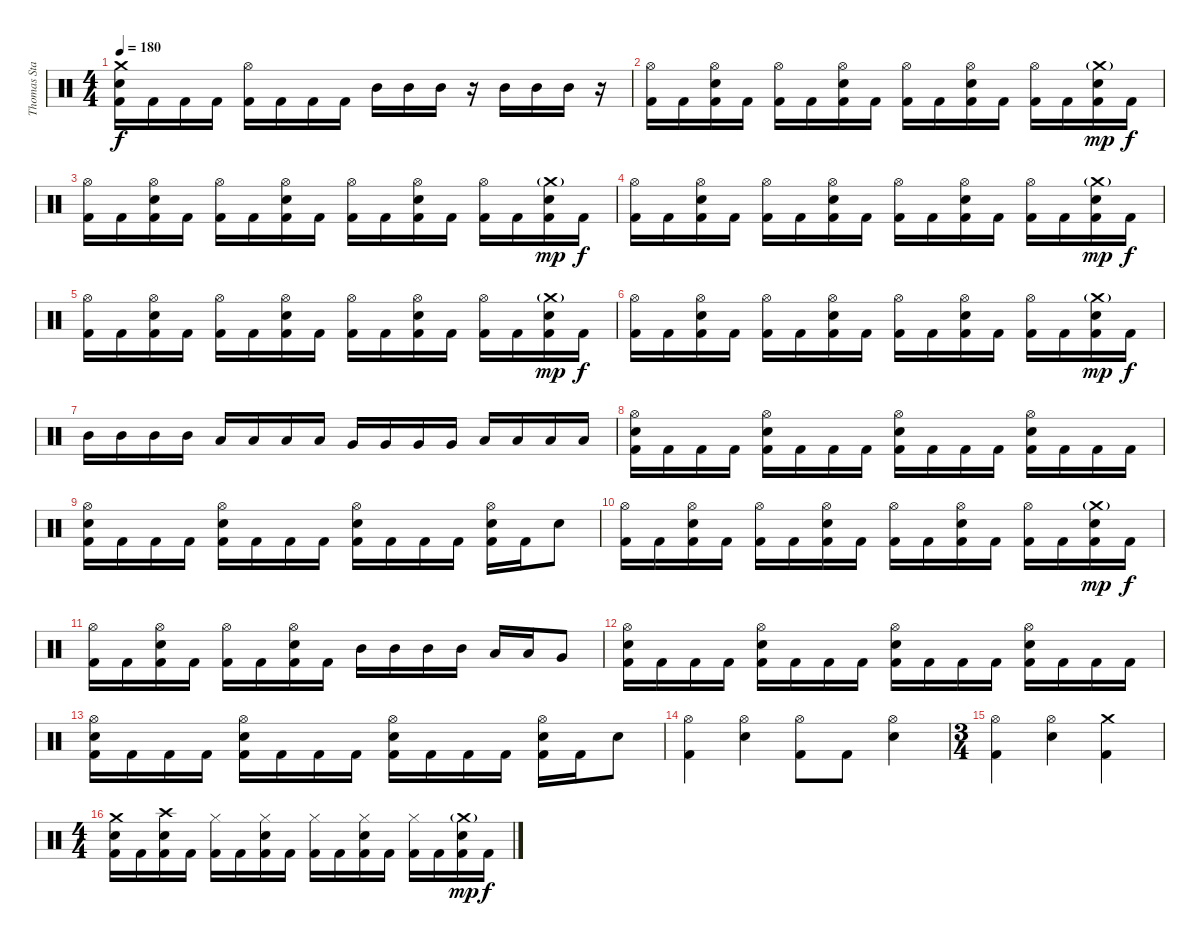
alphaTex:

\track ("Thomas Stauch" "Thomas Sta") {instrument percussion}
\staff {score}
\articulation defaults
\ts (4 4)
\tempo 180
\clef neutral
\ks c
("Crash medium (hit)" "Electric Snare (hit)" "Kick (hit) 2").16{dy f} "Kick (hit) 2".16 "Kick (hit) 2".16 "Kick (hit) 2".16 ("Hi-Hat (open)" "Kick (hit) 2").16 "Kick (hit) 2".16 "Kick (hit) 2".16 "Kick (hit) 2".16 "Mid Tom (hit)".16 "Mid Tom (hit)".16 "Mid Tom (hit)".16 r.16 "Mid Tom (hit)".16 "Mid Tom (hit)".16 "Mid Tom (hit)".16 r.16 |
("Hi-Hat (open)" "Kick (hit) 2").16 "Kick (hit) 2".16 ("Hi-Hat (open)" "Electric Snare (hit)" "Kick (hit) 2").16 "Kick (hit) 2".16 ("Hi-Hat (open)" "Kick (hit) 2").16 "Kick (hit) 2".16 ("Hi-Hat (open)" "Electric Snare (hit)" "Kick (hit) 2").16 "Kick (hit) 2".16 ("Hi-Hat (open)" "Kick (hit) 2").16 "Kick (hit) 2".16 ("Hi-Hat (open)" "Electric Snare (hit)" "Kick (hit) 2").16 "Kick (hit) 2".16 ("Hi-Hat (open)" "Kick (hit) 2").16 "Kick (hit) 2".16 ("Crash medium (hit)"{g} "Electric Snare (hit)" "Kick (hit) 2").16{dy mp} "Kick (hit) 2".16{dy f} |
("Hi-Hat (open)" "Kick (hit) 2").16 "Kick (hit) 2".16 ("Hi-Hat (open)" "Electric Snare (hit)" "Kick (hit) 2").16 "Kick (hit) 2".16 ("Hi-Hat (open)" "Kick (hit) 2").16 "Kick (hit) 2".16 ("Hi-Hat (open)" "Electric Snare (hit)" "Kick (hit) 2").16 "Kick (hit) 2".16 ("Hi-Hat (open)" "Kick (hit) 2").16 "Kick (hit) 2".16 ("Hi-Hat (open)" "Electric Snare (hit)" "Kick (hit) 2").16 "Kick (hit) 2".16 ("Hi-Hat (open)" "Kick (hit) 2").16 "Kick (hit) 2".16 ("Crash medium (hit)"{g} "Electric Snare (hit)" "Kick (hit) 2").16{dy mp} "Kick (hit) 2".16{dy f} |
("Hi-Hat (open)" "Kick (hit) 2").16 "Kick (hit) 2".16 ("Hi-Hat (open)" "Electric Snare (hit)" "Kick (hit) 2").16 "Kick (hit) 2".16 ("Hi-Hat (open)" "Kick (hit) 2").16 "Kick (hit) 2".16 ("Hi-Hat (open)" "Electric Snare (hit)" "Kick (hit) 2").16 "Kick (hit) 2".16 ("Hi-Hat (open)" "Kick (hit) 2").16 "Kick (hit) 2".16 ("Hi-Hat (open)" "Electric Snare (hit)" "Kick (hit) 2").16 "Kick (hit) 2".16 ("Hi-Hat (open)" "Kick (hit) 2").16 "Kick (hit) 2".16 ("Crash medium (hit)"{g} "Electric Snare (hit)" "Kick (hit) 2").16{dy mp} "Kick (hit) 2".16{dy f} |
("Hi-Hat (open)" "Kick (hit) 2").16 "Kick (hit) 2".16 ("Hi-Hat (open)" "Electric Snare (hit)" "Kick (hit) 2").16 "Kick (hit) 2".16 ("Hi-Hat (open)" "Kick (hit) 2").16 "Kick (hit) 2".16 ("Hi-Hat (open)" "Electric Snare (hit)" "Kick (hit) 2").16 "Kick (hit) 2".16 ("Hi-Hat (open)" "Kick (hit) 2").16 "Kick (hit) 2".16 ("Hi-Hat (open)" "Electric Snare (hit)" "Kick (hit) 2").16 "Kick (hit) 2".16 ("Hi-Hat (open)" "Kick (hit) 2").16 "Kick (hit) 2".16 ("Crash medium (hit)"{g} "Electric Snare (hit)" "Kick (hit) 2").16{dy mp} "Kick (hit) 2".16{dy f} |
("Hi-Hat (open)" "Kick (hit) 2").16 "Kick (hit) 2".16 ("Hi-Hat (open)" "Electric Snare (hit)" "Kick (hit) 2").16 "Kick (hit) 2".16 ("Hi-Hat (open)" "Kick (hit) 2").16 "Kick (hit) 2".16 ("Hi-Hat (open)" "Electric Snare (hit)" "Kick (hit) 2").16 "Kick (hit) 2".16 ("Hi-Hat (open)" "Kick (hit) 2").16 "Kick (hit) 2".16 ("Hi-Hat (open)" "Electric Snare (hit)" "Kick (hit) 2").16 "Kick (hit) 2".16 ("Hi-Hat (open)" "Kick (hit) 2").16 "Kick (hit) 2".16 ("Crash medium (hit)"{g} "Electric Snare (hit)" "Kick (hit) 2").16{dy mp} "Kick (hit) 2".16{dy f} |
"Mid Tom (hit)".16 "Mid Tom (hit)".16 "Mid Tom (hit)".16 "Mid Tom (hit)".16 "Low Tom (hit)".16 "Low Tom (hit)".16 "Low Tom (hit)".16 "Low Tom (hit)".16 "Very Low Tom (hit)".16 "Very Low Tom (hit)".16 "Very Low Tom (hit)".16 "Very Low Tom (hit)".16 "Low Floor Tom (hit)".16 "Low Floor Tom (hit)".16 "Low Floor Tom (hit)".16 "Low Floor Tom (hit)".16 |
("Hi-Hat (open)" "Electric Snare (hit)" "Kick (hit) 2").16 "Kick (hit) 2".16 "Kick (hit) 2".16 "Kick (hit) 2".16 ("Hi-Hat (open)" "Electric Snare (hit)" "Kick (hit) 2").16 "Kick (hit) 2".16 "Kick (hit) 2".16 "Kick (hit) 2".16 ("Hi-Hat (open)" "Electric Snare (hit)" "Kick (hit) 2").16 "Kick (hit) 2".16 "Kick (hit) 2".16 "Kick (hit) 2".16 ("Hi-Hat (open)" "Electric Snare (hit)" "Kick (hit) 2").16 "Kick (hit) 2".16 "Kick (hit) 2".16 "Kick (hit) 2".16 |
("Hi-Hat (open)" "Electric Snare (hit)" "Kick (hit) 2").16 "Kick (hit) 2".16 "Kick (hit) 2".16 "Kick (hit) 2".16 ("Hi-Hat (open)" "Electric Snare (hit)" "Kick (hit) 2").16 "Kick (hit) 2".16 "Kick (hit) 2".16 "Kick (hit) 2".16 ("Hi-Hat (open)" "Electric Snare (hit)" "Kick (hit) 2").16 "Kick (hit) 2".16 "Kick (hit) 2".16 "Kick (hit) 2".16 ("Hi-Hat (open)" "Electric Snare (hit)" "Kick (hit) 2").16 "Kick (hit) 2".16 "Electric Snare (hit)".8 |
("Hi-Hat (open)" "Kick (hit) 2").16 "Kick (hit) 2".16 ("Hi-Hat (open)" "Electric Snare (hit)" "Kick (hit) 2").16 "Kick (hit) 2".16 ("Hi-Hat (open)" "Kick (hit) 2").16 "Kick (hit) 2".16 ("Hi-Hat (open)" "Electric Snare (hit)" "Kick (hit) 2").16 "Kick (hit) 2".16 ("Hi-Hat (open)" "Kick (hit) 2").16 "Kick (hit) 2".16 ("Hi-Hat (open)" "Electric Snare (hit)" "Kick (hit) 2").16 "Kick (hit) 2".16 ("Hi-Hat (open)" "Kick (hit) 2").16 "Kick (hit) 2".16 ("Crash medium (hit)"{g} "Electric Snare (hit)" "Kick (hit) 2").16{dy mp} "Kick (hit) 2".16{dy f} |
("Hi-Hat (open)" "Kick (hit) 2").16 "Kick (hit) 2".16 ("Hi-Hat (open)" "Electric Snare (hit)" "Kick (hit) 2").16 "Kick (hit) 2".16 ("Hi-Hat (open)" "Kick (hit) 2").16 "Kick (hit) 2".16 ("Hi-Hat (open)" "Electric Snare (hit)" "Kick (hit) 2").16 "Kick (hit) 2".16 "Mid Tom (hit)".16 "Mid Tom (hit)".16 "Mid Tom (hit)".16 "Mid Tom (hit)".16 "Low Tom (hit)".16 "Low Tom (hit)".16 "Very Low Tom (hit)".8 |
("Hi-Hat (open)" "Electric Snare (hit)" "Kick (hit) 2").16 "Kick (hit) 2".16 "Kick (hit) 2".16 "Kick (hit) 2".16 ("Hi-Hat (open)" "Electric Snare (hit)" "Kick (hit) 2").16 "Kick (hit) 2".16 "Kick (hit) 2".16 "Kick (hit) 2".16 ("Hi-Hat (open)" "Electric Snare (hit)" "Kick (hit) 2").16 "Kick (hit) 2".16 "Kick (hit) 2".16 "Kick (hit) 2".16 ("Hi-Hat (open)" "Electric Snare (hit)" "Kick (hit) 2").16 "Kick (hit) 2".16 "Kick (hit) 2".16 "Kick (hit) 2".16 |
("Hi-Hat (open)" "Electric Snare (hit)" "Kick (hit) 2").16 "Kick (hit) 2".16 "Kick (hit) 2".16 "Kick (hit) 2".16 ("Hi-Hat (open)" "Electric Snare (hit)" "Kick (hit) 2").16 "Kick (hit) 2".16 "Kick (hit) 2".16 "Kick (hit) 2".16 ("Hi-Hat (open)" "Electric Snare (hit)" "Kick (hit) 2").16 "Kick (hit) 2".16 "Kick (hit) 2".16 "Kick (hit) 2".16 ("Hi-Hat (open)" "Electric Snare (hit)" "Kick (hit) 2").16 "Kick (hit) 2".16 "Electric Snare (hit)".8 |
("Hi-Hat (open)" "Kick (hit) 2").4 ("Hi-Hat (open)" "Electric Snare (hit)").4 ("Hi-Hat (open)" "Kick (hit) 2").8 "Kick (hit) 2".8 ("Hi-Hat (open)" "Electric Snare (hit)").4 |
\ts (3 4)
("Hi-Hat (open)" "Kick (hit) 2").4 ("Hi-Hat (open)" "Electric Snare (hit)").4 ("Crash medium (hit)" "Kick (hit) 2").4 |
\ts (4 4)
("Crash medium (hit)" "Electric Snare (hit)" "Kick (hit) 2").16 "Kick (hit) 2".16 ("Crash high (hit)" "Electric Snare (hit)" "Kick (hit) 2").16 "Kick (hit) 2".16 ("Hi-Hat (closed)" "Kick (hit) 2").16 "Kick (hit) 2".16 ("Hi-Hat (closed)" "Electric Snare (hit)" "Kick (hit) 2").16 "Kick (hit) 2".16 ("Hi-Hat (closed)" "Kick (hit) 2").16 "Kick (hit) 2".16 ("Hi-Hat (closed)" "Electric Snare (hit)" "Kick (hit) 2").16 "Kick (hit) 2".16 ("Hi-Hat (closed)" "Kick (hit) 2").16 "Kick (hit) 2".16 ("Crash medium (hit)"{g} "Electric Snare (hit)" "Kick (hit) 2").16{dy mp} "Kick (hit) 2".16{dy f}
